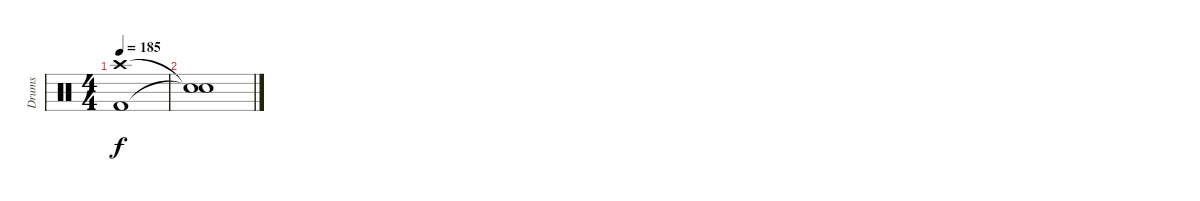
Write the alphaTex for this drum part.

\track ("Drums" "Drums") {instrument percussion}
\staff {score}
\articulation defaults
\ts (4 4)
\tempo 185
\clef neutral
\ks c
("Crash high (hit)" "Kick (hit) 2").1{dy f} |
("Snare (hit)"{t} "Snare (hit)"{t}).1
